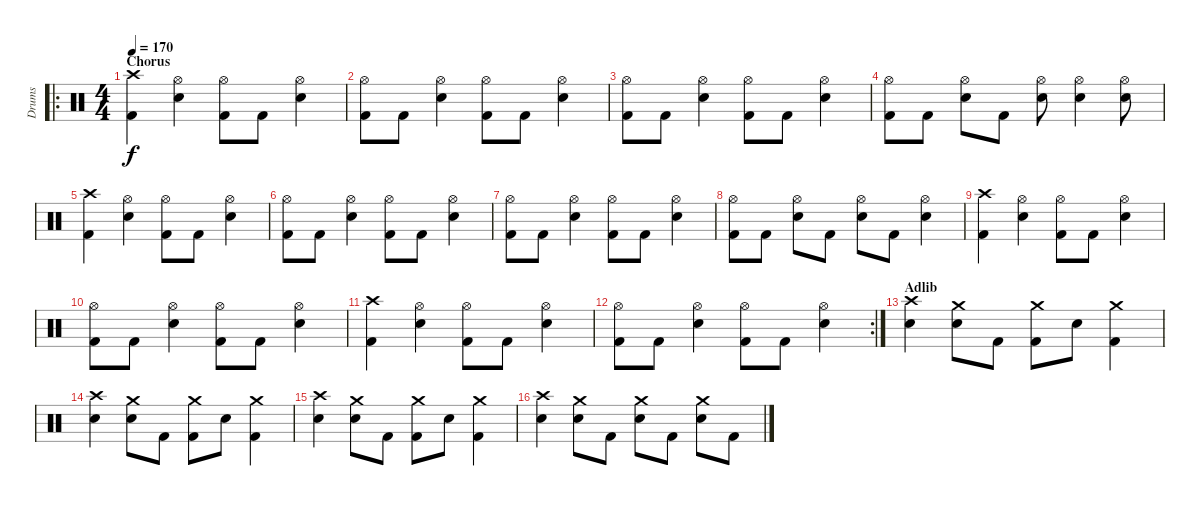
\track ("Drums" "Drums") {instrument percussion}
\staff {score}
\articulation defaults
\ro
\ts (4 4)
\section ("" "Chorus")
\tempo 170
\clef neutral
\ks c
("Crash high (hit)" "Kick (hit) 2").4{dy f} ("Hi-Hat (open)" "Electric Snare (hit)").4 ("Hi-Hat (open)" "Kick (hit) 2").8 "Kick (hit) 2".8 ("Hi-Hat (open)" "Electric Snare (hit)").4 |
("Hi-Hat (open)" "Kick (hit) 2").8 "Kick (hit) 2".8 ("Hi-Hat (open)" "Electric Snare (hit)").4 ("Hi-Hat (open)" "Kick (hit) 2").8 "Kick (hit) 2".8 ("Hi-Hat (open)" "Electric Snare (hit)").4 |
("Hi-Hat (open)" "Kick (hit) 2").8 "Kick (hit) 2".8 ("Hi-Hat (open)" "Electric Snare (hit)").4 ("Hi-Hat (open)" "Kick (hit) 2").8 "Kick (hit) 2".8 ("Hi-Hat (open)" "Electric Snare (hit)").4 |
("Hi-Hat (open)" "Kick (hit) 2").8 "Kick (hit) 2".8 ("Hi-Hat (open)" "Electric Snare (hit)").8 "Kick (hit) 2".8 ("Hi-Hat (open)" "Electric Snare (hit)").8 ("Hi-Hat (open)" "Electric Snare (hit)").4 ("Hi-Hat (open)" "Electric Snare (hit)").8 |
("Crash high (hit)" "Kick (hit) 2").4 ("Hi-Hat (open)" "Electric Snare (hit)").4 ("Hi-Hat (open)" "Kick (hit) 2").8 "Kick (hit) 2".8 ("Hi-Hat (open)" "Electric Snare (hit)").4 |
("Hi-Hat (open)" "Kick (hit) 2").8 "Kick (hit) 2".8 ("Hi-Hat (open)" "Electric Snare (hit)").4 ("Hi-Hat (open)" "Kick (hit) 2").8 "Kick (hit) 2".8 ("Hi-Hat (open)" "Electric Snare (hit)").4 |
("Hi-Hat (open)" "Kick (hit) 2").8 "Kick (hit) 2".8 ("Hi-Hat (open)" "Electric Snare (hit)").4 ("Hi-Hat (open)" "Kick (hit) 2").8 "Kick (hit) 2".8 ("Hi-Hat (open)" "Electric Snare (hit)").4 |
("Hi-Hat (open)" "Kick (hit) 2").8 "Kick (hit) 2".8 ("Hi-Hat (open)" "Electric Snare (hit)").8 "Kick (hit) 2".8 ("Hi-Hat (open)" "Electric Snare (hit)").8 "Kick (hit) 2".8 ("Hi-Hat (open)" "Electric Snare (hit)").4 |
("Crash high (hit)" "Kick (hit) 2").4 ("Hi-Hat (open)" "Electric Snare (hit)").4 ("Hi-Hat (open)" "Kick (hit) 2").8 "Kick (hit) 2".8 ("Hi-Hat (open)" "Electric Snare (hit)").4 |
("Hi-Hat (open)" "Kick (hit) 2").8 "Kick (hit) 2".8 ("Hi-Hat (open)" "Electric Snare (hit)").4 ("Hi-Hat (open)" "Kick (hit) 2").8 "Kick (hit) 2".8 ("Hi-Hat (open)" "Electric Snare (hit)").4 |
("Crash high (hit)" "Kick (hit) 2").4 ("Hi-Hat (open)" "Electric Snare (hit)").4 ("Hi-Hat (open)" "Kick (hit) 2").8 "Kick (hit) 2".8 ("Hi-Hat (open)" "Electric Snare (hit)").4 |
\rc 2
("Hi-Hat (open)" "Kick (hit) 2").8 "Kick (hit) 2".8 ("Hi-Hat (open)" "Electric Snare (hit)").4 ("Hi-Hat (open)" "Kick (hit) 2").8 "Kick (hit) 2".8 ("Hi-Hat (open)" "Electric Snare (hit)").4 |
\section ("" "Adlib")
("Crash high (hit)" "Electric Snare (hit)").4 ("Crash medium (hit)" "Electric Snare (hit)").8 "Kick (hit) 2".8 ("Crash medium (hit)" "Kick (hit) 2").8 "Electric Snare (hit)".8 ("Crash medium (hit)" "Kick (hit) 2").4 |
("Crash high (hit)" "Electric Snare (hit)").4 ("Crash medium (hit)" "Electric Snare (hit)").8 "Kick (hit) 2".8 ("Crash medium (hit)" "Kick (hit) 2").8 "Electric Snare (hit)".8 ("Crash medium (hit)" "Kick (hit) 2").4 |
("Crash high (hit)" "Electric Snare (hit)").4 ("Crash medium (hit)" "Electric Snare (hit)").8 "Kick (hit) 2".8 ("Crash medium (hit)" "Kick (hit) 2").8 "Electric Snare (hit)".8 ("Crash medium (hit)" "Kick (hit) 2").4 |
("Crash high (hit)" "Electric Snare (hit)").4 ("Crash medium (hit)" "Electric Snare (hit)").8 "Kick (hit) 2".8 ("Crash medium (hit)" "Electric Snare (hit)").8 "Kick (hit) 2".8 ("Crash medium (hit)" "Electric Snare (hit)").8 "Kick (hit) 2".8
